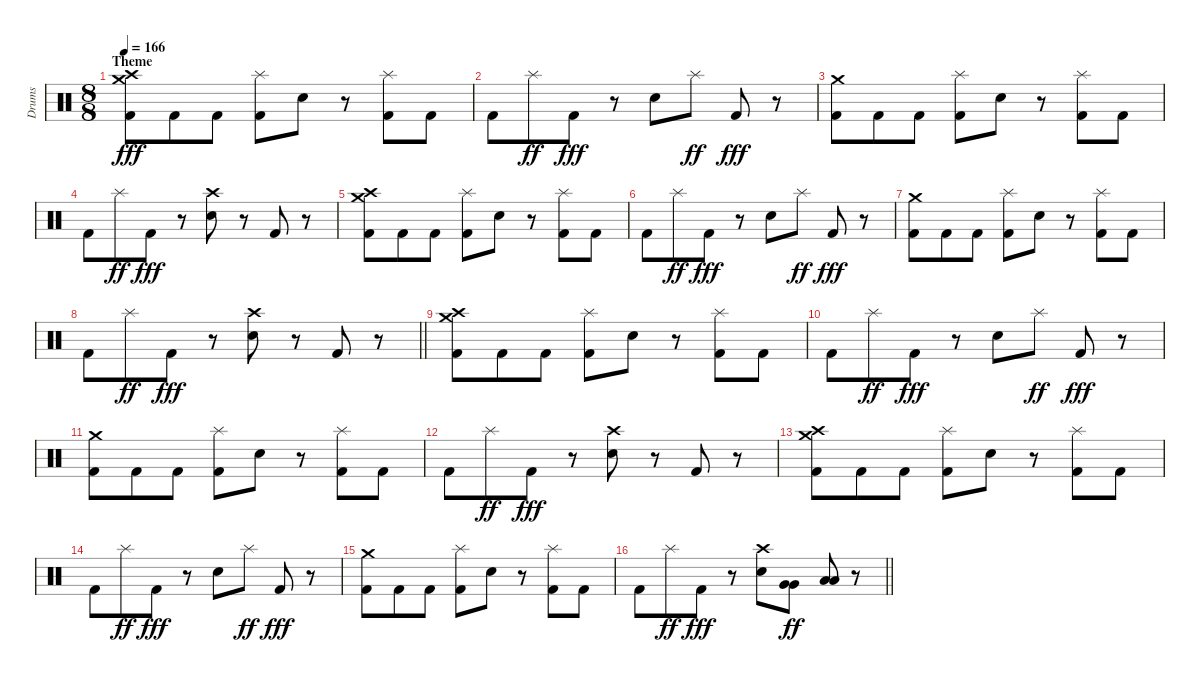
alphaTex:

\track ("Drums" "Drums") {instrument percussion}
\staff {score}
\articulation defaults
\ts (8 8)
\section ("" "Theme")
\tempo 166
\clef neutral
\ks c
("Crash high (hit)" "Crash medium (hit)" "Kick (hit) 2").8{dy fff} "Kick (hit) 2".8 "Kick (hit) 2".8 ("Splash (hit)" "Kick (hit) 2").8 "Electric Snare (hit)".8 r.8 ("Splash (hit)" "Kick (hit) 2").8 "Kick (hit) 2".8 |
"Kick (hit) 2".8 "Splash (hit)".8{dy ff} "Kick (hit) 2".8{dy fff} r.8 "Electric Snare (hit)".8 "Splash (hit)".8{dy ff} "Kick (hit) 2".8{dy fff} r.8 |
("Crash medium (hit)" "Kick (hit) 2").8 "Kick (hit) 2".8 "Kick (hit) 2".8 ("Splash (hit)" "Kick (hit) 2").8 "Electric Snare (hit)".8 r.8 ("Splash (hit)" "Kick (hit) 2").8 "Kick (hit) 2".8 |
"Kick (hit) 2".8 "Splash (hit)".8{dy ff} "Kick (hit) 2".8{dy fff} r.8 ("Crash high (hit)" "Electric Snare (hit)").8 r.8 "Kick (hit) 2".8 r.8 |
("Crash high (hit)" "Crash medium (hit)" "Kick (hit) 2").8 "Kick (hit) 2".8 "Kick (hit) 2".8 ("Splash (hit)" "Kick (hit) 2").8 "Electric Snare (hit)".8 r.8 ("Splash (hit)" "Kick (hit) 2").8 "Kick (hit) 2".8 |
"Kick (hit) 2".8 "Splash (hit)".8{dy ff} "Kick (hit) 2".8{dy fff} r.8 "Electric Snare (hit)".8 "Splash (hit)".8{dy ff} "Kick (hit) 2".8{dy fff} r.8 |
("Crash medium (hit)" "Kick (hit) 2").8 "Kick (hit) 2".8 "Kick (hit) 2".8 ("Splash (hit)" "Kick (hit) 2").8 "Electric Snare (hit)".8 r.8 ("Splash (hit)" "Kick (hit) 2").8 "Kick (hit) 2".8 |
\barLineRight lightlight "Kick (hit) 2".8 "Splash (hit)".8{dy ff} "Kick (hit) 2".8{dy fff}
r.8 ("Crash high (hit)" "Electric Snare (hit)").8 r.8 "Kick (hit) 2".8 r.8 |
\section ("" "")
("Crash high (hit)" "Crash medium (hit)" "Kick (hit) 2").8 "Kick (hit) 2".8 "Kick (hit) 2".8 ("Splash (hit)" "Kick (hit) 2").8 "Electric Snare (hit)".8 r.8 ("Splash (hit)" "Kick (hit) 2").8 "Kick (hit) 2".8 |
"Kick (hit) 2".8 "Splash (hit)".8{dy ff} "Kick (hit) 2".8{dy fff} r.8 "Electric Snare (hit)".8 "Splash (hit)".8{dy ff} "Kick (hit) 2".8{dy fff} r.8 |
("Crash medium (hit)" "Kick (hit) 2").8 "Kick (hit) 2".8 "Kick (hit) 2".8 ("Splash (hit)" "Kick (hit) 2").8 "Electric Snare (hit)".8 r.8 ("Splash (hit)" "Kick (hit) 2").8 "Kick (hit) 2".8 |
"Kick (hit) 2".8 "Splash (hit)".8{dy ff} "Kick (hit) 2".8{dy fff} r.8 ("Crash high (hit)" "Electric Snare (hit)").8 r.8 "Kick (hit) 2".8 r.8 |
("Crash high (hit)" "Crash medium (hit)" "Kick (hit) 2").8 "Kick (hit) 2".8 "Kick (hit) 2".8 ("Splash (hit)" "Kick (hit) 2").8 "Electric Snare (hit)".8 r.8 ("Splash (hit)" "Kick (hit) 2").8 "Kick (hit) 2".8 |
"Kick (hit) 2".8 "Splash (hit)".8{dy ff} "Kick (hit) 2".8{dy fff} r.8 "Electric Snare (hit)".8 "Splash (hit)".8{dy ff} "Kick (hit) 2".8{dy fff} r.8 |
("Crash medium (hit)" "Kick (hit) 2").8 "Kick (hit) 2".8 "Kick (hit) 2".8 ("Splash (hit)" "Kick (hit) 2").8 "Electric Snare (hit)".8 r.8 ("Splash (hit)" "Kick (hit) 2").8 "Kick (hit) 2".8 |
\barLineRight lightlight "Kick (hit) 2".8 "Splash (hit)".8{dy ff} "Kick (hit) 2".8{dy fff}
r.8 ("Crash high (hit)" "Electric Snare (hit)").8 ("Very Low Tom (hit)" "Very Low Tom (hit)").8{dy ff} ("Low Floor Tom (hit)" "Low Floor Tom (hit)").8 r.8
